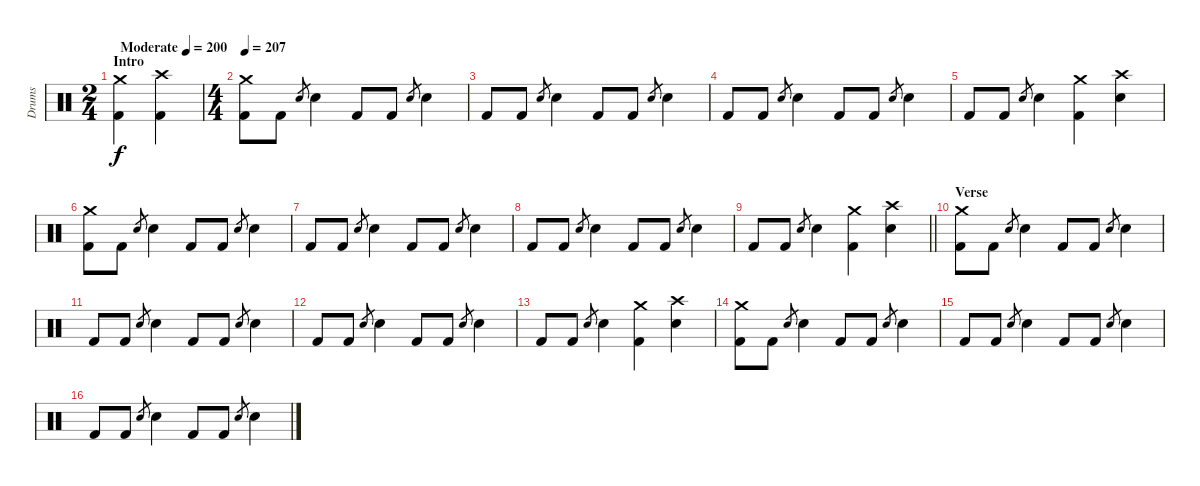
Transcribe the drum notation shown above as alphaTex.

\track ("Drums" "Drums") {instrument percussion}
\staff {score}
\articulation defaults
\ts (2 4)
\section ("" "Intro")
\tempo (200 "Moderate")
\clef neutral
\ks c
("Crash medium (hit)" "Kick (hit) 2").4{dy f} ("Crash high (hit)" "Kick (hit) 2").4 |
\ts (4 4)
\tempo 207
("Crash medium (hit)" "Kick (hit) 2").8 "Kick (hit) 2".8 "Electric Snare (hit)".8{gr} "Electric Snare (hit)".4 "Kick (hit) 2".8 "Kick (hit) 2".8 "Electric Snare (hit)".8{gr} "Electric Snare (hit)".4 |
"Kick (hit) 2".8 "Kick (hit) 2".8 "Electric Snare (hit)".8{gr} "Electric Snare (hit)".4 "Kick (hit) 2".8 "Kick (hit) 2".8 "Electric Snare (hit)".8{gr} "Electric Snare (hit)".4 |
"Kick (hit) 2".8 "Kick (hit) 2".8 "Electric Snare (hit)".8{gr} "Electric Snare (hit)".4 "Kick (hit) 2".8 "Kick (hit) 2".8 "Electric Snare (hit)".8{gr} "Electric Snare (hit)".4 |
"Kick (hit) 2".8 "Kick (hit) 2".8 "Electric Snare (hit)".8{gr} "Electric Snare (hit)".4 ("Crash medium (hit)" "Kick (hit) 2").4 ("Crash high (hit)" "Electric Snare (hit)").4 |
("Crash medium (hit)" "Kick (hit) 2").8 "Kick (hit) 2".8 "Electric Snare (hit)".8{gr} "Electric Snare (hit)".4 "Kick (hit) 2".8 "Kick (hit) 2".8 "Electric Snare (hit)".8{gr} "Electric Snare (hit)".4 |
"Kick (hit) 2".8 "Kick (hit) 2".8 "Electric Snare (hit)".8{gr} "Electric Snare (hit)".4 "Kick (hit) 2".8 "Kick (hit) 2".8 "Electric Snare (hit)".8{gr} "Electric Snare (hit)".4 |
"Kick (hit) 2".8 "Kick (hit) 2".8 "Electric Snare (hit)".8{gr} "Electric Snare (hit)".4 "Kick (hit) 2".8 "Kick (hit) 2".8 "Electric Snare (hit)".8{gr} "Electric Snare (hit)".4 |
\barLineRight lightlight "Kick (hit) 2".8 "Kick (hit) 2".8 "Electric Snare (hit)".8{gr} "Electric Snare (hit)".4
("Crash medium (hit)" "Kick (hit) 2").4 ("Crash high (hit)" "Electric Snare (hit)").4 |
\section ("" "Verse")
("Crash medium (hit)" "Kick (hit) 2").8 "Kick (hit) 2".8 "Electric Snare (hit)".8{gr} "Electric Snare (hit)".4 "Kick (hit) 2".8 "Kick (hit) 2".8 "Electric Snare (hit)".8{gr} "Electric Snare (hit)".4 |
"Kick (hit) 2".8 "Kick (hit) 2".8 "Electric Snare (hit)".8{gr} "Electric Snare (hit)".4 "Kick (hit) 2".8 "Kick (hit) 2".8 "Electric Snare (hit)".8{gr} "Electric Snare (hit)".4 |
"Kick (hit) 2".8 "Kick (hit) 2".8 "Electric Snare (hit)".8{gr} "Electric Snare (hit)".4 "Kick (hit) 2".8 "Kick (hit) 2".8 "Electric Snare (hit)".8{gr} "Electric Snare (hit)".4 |
"Kick (hit) 2".8 "Kick (hit) 2".8 "Electric Snare (hit)".8{gr} "Electric Snare (hit)".4 ("Crash medium (hit)" "Kick (hit) 2").4 ("Crash high (hit)" "Electric Snare (hit)").4 |
("Crash medium (hit)" "Kick (hit) 2").8 "Kick (hit) 2".8 "Electric Snare (hit)".8{gr} "Electric Snare (hit)".4 "Kick (hit) 2".8 "Kick (hit) 2".8 "Electric Snare (hit)".8{gr} "Electric Snare (hit)".4 |
"Kick (hit) 2".8 "Kick (hit) 2".8 "Electric Snare (hit)".8{gr} "Electric Snare (hit)".4 "Kick (hit) 2".8 "Kick (hit) 2".8 "Electric Snare (hit)".8{gr} "Electric Snare (hit)".4 |
"Kick (hit) 2".8 "Kick (hit) 2".8 "Electric Snare (hit)".8{gr} "Electric Snare (hit)".4 "Kick (hit) 2".8 "Kick (hit) 2".8 "Electric Snare (hit)".8{gr} "Electric Snare (hit)".4
